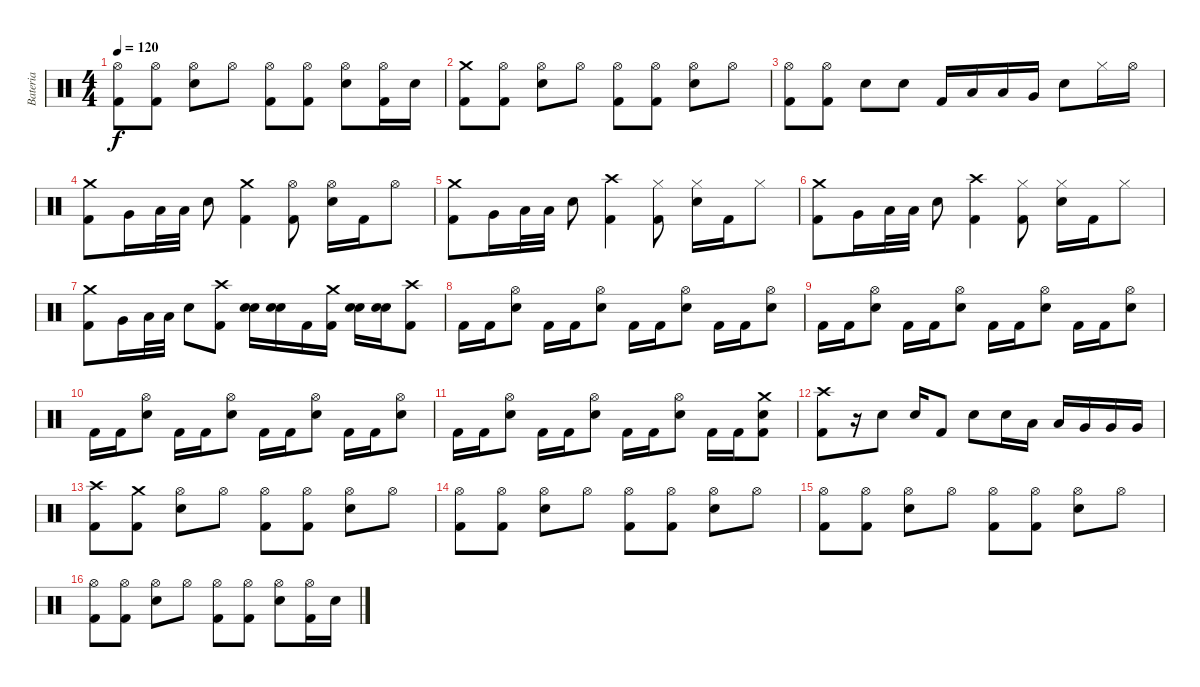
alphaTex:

\track ("Bateria" "Bateria") {instrument percussion}
\staff {score}
\articulation defaults
\ts (4 4)
\tempo 120
\clef neutral
\ks c
("Hi-Hat (open)" "Kick (hit) 2").8{dy f} ("Hi-Hat (open)" "Kick (hit) 2").8 ("Hi-Hat (open)" "Electric Snare (hit)").8 "Hi-Hat (open)".8 ("Hi-Hat (open)" "Kick (hit) 2").8 ("Hi-Hat (open)" "Kick (hit) 2").8 ("Hi-Hat (open)" "Electric Snare (hit)").8 ("Hi-Hat (open)" "Kick (hit) 2").16 "Electric Snare (hit)".16 |
("Crash medium (hit)" "Kick (hit) 2").8 ("Hi-Hat (open)" "Kick (hit) 2").8 ("Hi-Hat (open)" "Electric Snare (hit)").8 "Hi-Hat (open)".8 ("Hi-Hat (open)" "Kick (hit) 2").8 ("Hi-Hat (open)" "Kick (hit) 2").8 ("Hi-Hat (open)" "Electric Snare (hit)").8 "Hi-Hat (open)".8 |
("Hi-Hat (open)" "Kick (hit) 2").8 ("Hi-Hat (open)" "Kick (hit) 2").8 "Electric Snare (hit)".8 "Electric Snare (hit)".8 "Kick (hit) 2".16 "Low Tom (hit)".16 "Low Tom (hit)".16 "Very Low Tom (hit)".16 "Electric Snare (hit)".8 "Hi-Hat (closed)".16 "Hi-Hat (open)".16 |
("Crash medium (hit)" "Kick (hit) 2").8 "Very Low Tom (hit)".16 "Low Tom (hit)".32 "Low Tom (hit)".32 "Electric Snare (hit)".8 ("Crash medium (hit)" "Kick (hit) 2").4 ("Hi-Hat (open)" "Kick (hit) 2").8 ("Hi-Hat (open)" "Electric Snare (hit)").16 "Kick (hit) 2".16 "Hi-Hat (open)".8 |
("Crash medium (hit)" "Kick (hit) 2").8 "Very Low Tom (hit)".16 "Low Tom (hit)".32 "Low Tom (hit)".32 "Electric Snare (hit)".8 ("Crash high (hit)" "Kick (hit) 2").4 ("Hi-Hat (closed)" "Kick (hit) 2").8 ("Hi-Hat (closed)" "Electric Snare (hit)").16 "Kick (hit) 2".16 "Hi-Hat (closed)".8 |
("Crash medium (hit)" "Kick (hit) 2").8 "Very Low Tom (hit)".16 "Low Tom (hit)".32 "Low Tom (hit)".32 "Electric Snare (hit)".8 ("Crash high (hit)" "Kick (hit) 2").4 ("Hi-Hat (closed)" "Kick (hit) 2").8 ("Hi-Hat (closed)" "Electric Snare (hit)").16 "Kick (hit) 2".16 "Hi-Hat (closed)".8 |
("Crash medium (hit)" "Kick (hit) 2").8 "Very Low Tom (hit)".16 "Low Tom (hit)".32 "Low Tom (hit)".32 "Electric Snare (hit)".8 ("Crash high (hit)" "Kick (hit) 2").8 ("Electric Snare (hit)" "Electric Snare (hit)").16 ("Electric Snare (hit)" "Electric Snare (hit)").16 "Kick (hit) 2".16 ("Crash medium (hit)" "Kick (hit) 2").16 ("Electric Snare (hit)" "Electric Snare (hit)").16 ("Electric Snare (hit)" "Electric Snare (hit)").16 ("Crash high (hit)" "Kick (hit) 2").8 |
"Kick (hit) 2".16 "Kick (hit) 2".16 ("Hi-Hat (open)" "Electric Snare (hit)").8 "Kick (hit) 2".16 "Kick (hit) 2".16 ("Hi-Hat (open)" "Electric Snare (hit)").8 "Kick (hit) 2".16 "Kick (hit) 2".16 ("Hi-Hat (open)" "Electric Snare (hit)").8 "Kick (hit) 2".16 "Kick (hit) 2".16 ("Hi-Hat (open)" "Electric Snare (hit)").8 |
"Kick (hit) 2".16 "Kick (hit) 2".16 ("Hi-Hat (open)" "Electric Snare (hit)").8 "Kick (hit) 2".16 "Kick (hit) 2".16 ("Hi-Hat (open)" "Electric Snare (hit)").8 "Kick (hit) 2".16 "Kick (hit) 2".16 ("Hi-Hat (open)" "Electric Snare (hit)").8 "Kick (hit) 2".16 "Kick (hit) 2".16 ("Hi-Hat (open)" "Electric Snare (hit)").8 |
"Kick (hit) 2".16 "Kick (hit) 2".16 ("Hi-Hat (open)" "Electric Snare (hit)").8 "Kick (hit) 2".16 "Kick (hit) 2".16 ("Hi-Hat (open)" "Electric Snare (hit)").8 "Kick (hit) 2".16 "Kick (hit) 2".16 ("Hi-Hat (open)" "Electric Snare (hit)").8 "Kick (hit) 2".16 "Kick (hit) 2".16 ("Hi-Hat (open)" "Electric Snare (hit)").8 |
"Kick (hit) 2".16 "Kick (hit) 2".16 ("Hi-Hat (open)" "Electric Snare (hit)").8 "Kick (hit) 2".16 "Kick (hit) 2".16 ("Hi-Hat (open)" "Electric Snare (hit)").8 "Kick (hit) 2".16 "Kick (hit) 2".16 ("Hi-Hat (open)" "Electric Snare (hit)").8 "Kick (hit) 2".16 "Kick (hit) 2".16 ("Crash medium (hit)" "Electric Snare (hit)" "Kick (hit) 2").8 |
("Crash high (hit)" "Kick (hit) 2").8 r.16 "Electric Snare (hit)".8 "Electric Snare (hit)".16 "Kick (hit) 2".8 "Electric Snare (hit)".8 "Electric Snare (hit)".16 "Low Tom (hit)".16 "Low Tom (hit)".16 "Very Low Tom (hit)".16 "Very Low Tom (hit)".16 "Very Low Tom (hit)".16 |
("Crash high (hit)" "Kick (hit) 2").8 ("Crash medium (hit)" "Kick (hit) 2").8 ("Hi-Hat (open)" "Electric Snare (hit)").8 "Hi-Hat (open)".8 ("Hi-Hat (open)" "Kick (hit) 2").8 ("Hi-Hat (open)" "Kick (hit) 2").8 ("Hi-Hat (open)" "Electric Snare (hit)").8 "Hi-Hat (open)".8 |
("Hi-Hat (open)" "Kick (hit) 2").8 ("Hi-Hat (open)" "Kick (hit) 2").8 ("Hi-Hat (open)" "Electric Snare (hit)").8 "Hi-Hat (open)".8 ("Hi-Hat (open)" "Kick (hit) 2").8 ("Hi-Hat (open)" "Kick (hit) 2").8 ("Hi-Hat (open)" "Electric Snare (hit)").8 "Hi-Hat (open)".8 |
("Hi-Hat (open)" "Kick (hit) 2").8 ("Hi-Hat (open)" "Kick (hit) 2").8 ("Hi-Hat (open)" "Electric Snare (hit)").8 "Hi-Hat (open)".8 ("Hi-Hat (open)" "Kick (hit) 2").8 ("Hi-Hat (open)" "Kick (hit) 2").8 ("Hi-Hat (open)" "Electric Snare (hit)").8 "Hi-Hat (open)".8 |
("Hi-Hat (open)" "Kick (hit) 2").8 ("Hi-Hat (open)" "Kick (hit) 2").8 ("Hi-Hat (open)" "Electric Snare (hit)").8 "Hi-Hat (open)".8 ("Hi-Hat (open)" "Kick (hit) 2").8 ("Hi-Hat (open)" "Kick (hit) 2").8 ("Hi-Hat (open)" "Electric Snare (hit)").8 ("Hi-Hat (open)" "Kick (hit) 2").16 "Electric Snare (hit)".16
